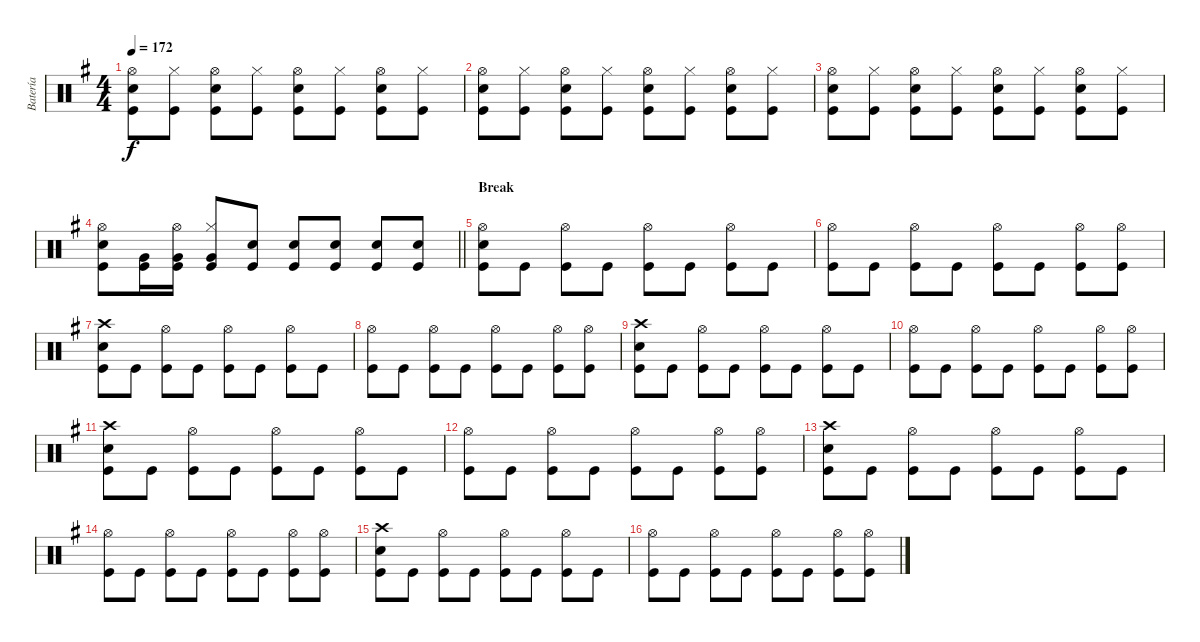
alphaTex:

\track ("Batería" "Batería") {instrument percussion}
\staff {score}
\articulation defaults
\ts (4 4)
\tempo 172
\clef neutral
\ks eminor
("Kick (hit)" "Electric Snare (hit)" "Hi-Hat (open)").8{dy f} ("Kick (hit)" "Hi-Hat (closed)").8 ("Kick (hit)" "Electric Snare (hit)" "Hi-Hat (open)").8 ("Kick (hit)" "Hi-Hat (closed)").8 ("Kick (hit)" "Electric Snare (hit)" "Hi-Hat (open)").8 ("Kick (hit)" "Hi-Hat (closed)").8 ("Kick (hit)" "Electric Snare (hit)" "Hi-Hat (open)").8 ("Kick (hit)" "Hi-Hat (closed)").8 |
("Kick (hit)" "Electric Snare (hit)" "Hi-Hat (open)").8 ("Kick (hit)" "Hi-Hat (closed)").8 ("Kick (hit)" "Electric Snare (hit)" "Hi-Hat (open)").8 ("Kick (hit)" "Hi-Hat (closed)").8 ("Kick (hit)" "Electric Snare (hit)" "Hi-Hat (open)").8 ("Kick (hit)" "Hi-Hat (closed)").8 ("Kick (hit)" "Electric Snare (hit)" "Hi-Hat (open)").8 ("Kick (hit)" "Hi-Hat (closed)").8 |
("Kick (hit)" "Electric Snare (hit)" "Hi-Hat (open)").8 ("Kick (hit)" "Hi-Hat (closed)").8 ("Kick (hit)" "Electric Snare (hit)" "Hi-Hat (open)").8 ("Kick (hit)" "Hi-Hat (closed)").8 ("Kick (hit)" "Electric Snare (hit)" "Hi-Hat (open)").8 ("Kick (hit)" "Hi-Hat (closed)").8 ("Kick (hit)" "Electric Snare (hit)" "Hi-Hat (open)").8 ("Kick (hit)" "Hi-Hat (closed)").8 |
\barLineRight lightlight
("Kick (hit)" "Electric Snare (hit)" "Hi-Hat (open)").8 ("Kick (hit)" "Very Low Tom (hit)").16 ("Kick (hit)" "Very Low Tom (hit)" "Hi-Hat (open)").16 ("Kick (hit)" "Very Low Tom (hit)" "Hi-Hat (closed)").8 ("Kick (hit)" "Electric Snare (hit)").8 ("Kick (hit)" "Electric Snare (hit)").8 ("Kick (hit)" "Electric Snare (hit)").8 ("Kick (hit)" "Electric Snare (hit)").8 ("Kick (hit)" "Electric Snare (hit)").8 |
\section ("" "Break")
("Kick (hit)" "Electric Snare (hit)" "Hi-Hat (open)").8 "Kick (hit)".8 ("Kick (hit)" "Hi-Hat (open)").8 "Kick (hit)".8 ("Kick (hit)" "Hi-Hat (open)").8 "Kick (hit)".8 ("Kick (hit)" "Hi-Hat (open)").8 "Kick (hit)".8 |
("Kick (hit)" "Hi-Hat (open)").8 "Kick (hit)".8 ("Kick (hit)" "Hi-Hat (open)").8 "Kick (hit)".8 ("Kick (hit)" "Hi-Hat (open)").8 "Kick (hit)".8 ("Kick (hit)" "Hi-Hat (open)").8 ("Kick (hit)" "Hi-Hat (open)").8 |
("Kick (hit)" "Electric Snare (hit)" "Crash high (hit)").8 "Kick (hit)".8 ("Kick (hit)" "Hi-Hat (open)").8 "Kick (hit)".8 ("Kick (hit)" "Hi-Hat (open)").8 "Kick (hit)".8 ("Kick (hit)" "Hi-Hat (open)").8 "Kick (hit)".8 |
("Kick (hit)" "Hi-Hat (open)").8 "Kick (hit)".8 ("Kick (hit)" "Hi-Hat (open)").8 "Kick (hit)".8 ("Kick (hit)" "Hi-Hat (open)").8 "Kick (hit)".8 ("Kick (hit)" "Hi-Hat (open)").8 ("Kick (hit)" "Hi-Hat (open)").8 |
("Kick (hit)" "Electric Snare (hit)" "Crash high (hit)").8 "Kick (hit)".8 ("Kick (hit)" "Hi-Hat (open)").8 "Kick (hit)".8 ("Kick (hit)" "Hi-Hat (open)").8 "Kick (hit)".8 ("Kick (hit)" "Hi-Hat (open)").8 "Kick (hit)".8 |
("Kick (hit)" "Hi-Hat (open)").8 "Kick (hit)".8 ("Kick (hit)" "Hi-Hat (open)").8 "Kick (hit)".8 ("Kick (hit)" "Hi-Hat (open)").8 "Kick (hit)".8 ("Kick (hit)" "Hi-Hat (open)").8 ("Kick (hit)" "Hi-Hat (open)").8 |
("Kick (hit)" "Electric Snare (hit)" "Crash high (hit)").8 "Kick (hit)".8 ("Kick (hit)" "Hi-Hat (open)").8 "Kick (hit)".8 ("Kick (hit)" "Hi-Hat (open)").8 "Kick (hit)".8 ("Kick (hit)" "Hi-Hat (open)").8 "Kick (hit)".8 |
("Kick (hit)" "Hi-Hat (open)").8 "Kick (hit)".8 ("Kick (hit)" "Hi-Hat (open)").8 "Kick (hit)".8 ("Kick (hit)" "Hi-Hat (open)").8 "Kick (hit)".8 ("Kick (hit)" "Hi-Hat (open)").8 ("Kick (hit)" "Hi-Hat (open)").8 |
("Kick (hit)" "Electric Snare (hit)" "Crash high (hit)").8 "Kick (hit)".8 ("Kick (hit)" "Hi-Hat (open)").8 "Kick (hit)".8 ("Kick (hit)" "Hi-Hat (open)").8 "Kick (hit)".8 ("Kick (hit)" "Hi-Hat (open)").8 "Kick (hit)".8 |
("Kick (hit)" "Hi-Hat (open)").8 "Kick (hit)".8 ("Kick (hit)" "Hi-Hat (open)").8 "Kick (hit)".8 ("Kick (hit)" "Hi-Hat (open)").8 "Kick (hit)".8 ("Kick (hit)" "Hi-Hat (open)").8 ("Kick (hit)" "Hi-Hat (open)").8 |
("Kick (hit)" "Electric Snare (hit)" "Crash high (hit)").8 "Kick (hit)".8 ("Kick (hit)" "Hi-Hat (open)").8 "Kick (hit)".8 ("Kick (hit)" "Hi-Hat (open)").8 "Kick (hit)".8 ("Kick (hit)" "Hi-Hat (open)").8 "Kick (hit)".8 |
("Kick (hit)" "Hi-Hat (open)").8 "Kick (hit)".8 ("Kick (hit)" "Hi-Hat (open)").8 "Kick (hit)".8 ("Kick (hit)" "Hi-Hat (open)").8 "Kick (hit)".8 ("Kick (hit)" "Hi-Hat (open)").8 ("Kick (hit)" "Hi-Hat (open)").8
